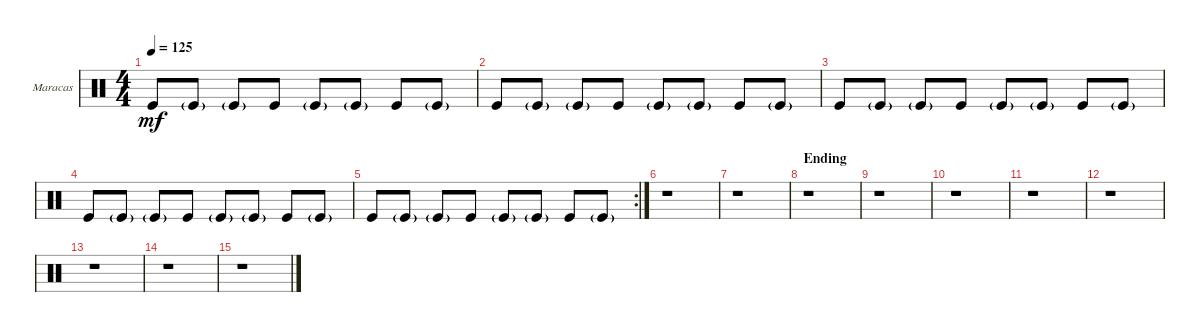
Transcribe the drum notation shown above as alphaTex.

\defaultSystemsLayout 4
\bracketExtendMode groupsimilarinstruments
\firstSystemTrackNameOrientation horizontal
\otherSystemsTrackNameOrientation horizontal
\track ("Maracas" "Maracas") {instrument percussion}
\staff {score}
\articulation defaults
\ts (4 4)
\tempo 125
\clef neutral
\scale
0.333333
\ks c "Kick (hit)".8{dy mf} "Kick (hit)"{g}.8 "Kick (hit)"{g}.8 "Kick (hit)".8 "Kick (hit)"{g}.8 "Kick (hit)"{g}.8 "Kick (hit)".8 "Kick (hit)"{g}.8
|
\scale
0.333333 "Kick (hit)".8 "Kick (hit)"{g}.8 "Kick (hit)"{g}.8 "Kick (hit)".8 "Kick (hit)"{g}.8 "Kick (hit)"{g}.8 "Kick (hit)".8 "Kick (hit)"{g}.8 |
\scale
0.333333 "Kick (hit)".8 "Kick (hit)"{g}.8 "Kick (hit)"{g}.8 "Kick (hit)".8 "Kick (hit)"{g}.8 "Kick (hit)"{g}.8 "Kick (hit)".8 "Kick (hit)"{g}.8 |
\scale
0.321839 "Kick (hit)".8 "Kick (hit)"{g}.8 "Kick (hit)"{g}.8 "Kick (hit)".8 "Kick (hit)"{g}.8 "Kick (hit)"{g}.8 "Kick (hit)".8 "Kick (hit)"{g}.8 |
\rc 2
\scale
0.356322 "Kick (hit)".8 "Kick (hit)"{g}.8 "Kick (hit)"{g}.8 "Kick (hit)".8 "Kick (hit)"{g}.8 "Kick (hit)"{g}.8 "Kick (hit)".8 "Kick (hit)"{g}.8 |
\scale
0.321839 r.1 |
\scale
0.333333 r.1 |
\section ("" "Ending")
\scale
0.333333 r.1 |
\scale
0.333333 r.1 |
\scale
0.333333 r.1 |
\scale
0.333333 r.1 |
\scale
0.333333 r.1 |
r.1 |
r.1 |
r.1
